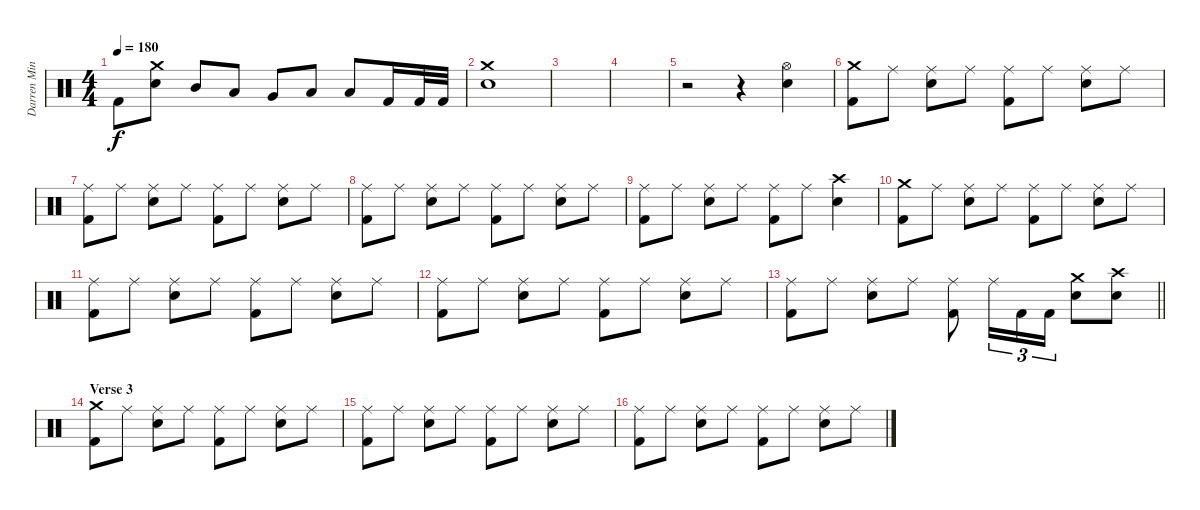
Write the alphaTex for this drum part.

\track ("Darren Minter" "Darren Min") {instrument percussion}
\staff {score}
\articulation defaults
\ts (4 4)
\tempo 180
\clef neutral
\ks c "Kick (hit) 2".8{dy f}
("Crash medium (hit)" "Electric Snare (hit)").8 "Mid Tom (hit)".8 "Low Tom (hit)".8 "Very Low Tom (hit)".8 "Low Floor Tom (hit)".8 "Low Floor Tom (hit)".8 "Kick (hit) 2".16 "Kick (hit) 2".32 "Kick (hit) 2".32 |
("Crash medium (hit)" "Electric Snare (hit)").1 |
|
|
r.2 r.4 ("Hi-Hat (open)" "Electric Snare (hit)").4 |
("Crash medium (hit)" "Kick (hit) 2").8 "Ride (middle)".8 ("Ride (middle)" "Electric Snare (hit)").8 "Ride (middle)".8 ("Ride (middle)" "Kick (hit) 2").8 "Ride (middle)".8 ("Ride (middle)" "Electric Snare (hit)").8 "Ride (middle)".8 |
("Ride (middle)" "Kick (hit) 2").8 "Ride (middle)".8 ("Ride (middle)" "Electric Snare (hit)").8 "Ride (middle)".8 ("Ride (middle)" "Kick (hit) 2").8 "Ride (middle)".8 ("Ride (middle)" "Electric Snare (hit)").8 "Ride (middle)".8 |
("Ride (middle)" "Kick (hit) 2").8 "Ride (middle)".8 ("Ride (middle)" "Electric Snare (hit)").8 "Ride (middle)".8 ("Ride (middle)" "Kick (hit) 2").8 "Ride (middle)".8 ("Ride (middle)" "Electric Snare (hit)").8 "Ride (middle)".8 |
("Ride (middle)" "Kick (hit) 2").8 "Ride (middle)".8 ("Ride (middle)" "Electric Snare (hit)").8 "Ride (middle)".8 ("Ride (middle)" "Kick (hit) 2").8 "Ride (middle)".8 ("Crash high (hit)" "Electric Snare (hit)").4 |
("Crash medium (hit)" "Kick (hit) 2").8 "Ride (middle)".8 ("Ride (middle)" "Electric Snare (hit)").8 "Ride (middle)".8 ("Ride (middle)" "Kick (hit) 2").8 "Ride (middle)".8 ("Ride (middle)" "Electric Snare (hit)").8 "Ride (middle)".8 |
("Ride (middle)" "Kick (hit) 2").8 "Ride (middle)".8 ("Ride (middle)" "Electric Snare (hit)").8 "Ride (middle)".8 ("Ride (middle)" "Kick (hit) 2").8 "Ride (middle)".8 ("Ride (middle)" "Electric Snare (hit)").8 "Ride (middle)".8 |
("Ride (middle)" "Kick (hit) 2").8 "Ride (middle)".8 ("Ride (middle)" "Electric Snare (hit)").8 "Ride (middle)".8 ("Ride (middle)" "Kick (hit) 2").8 "Ride (middle)".8 ("Ride (middle)" "Electric Snare (hit)").8 "Ride (middle)".8 |
\barLineRight lightlight
("Ride (middle)" "Kick (hit) 2").8 "Ride (middle)".8 ("Ride (middle)" "Electric Snare (hit)").8 "Ride (middle)".8 ("Ride (middle)" "Kick (hit) 2").8 "Ride (middle)".16{tu (3 2)} "Kick (hit) 2".16{tu (3 2)} "Kick (hit) 2".16{tu (3 2)} ("Crash medium (hit)" "Electric Snare (hit)").8 ("Crash high (hit)" "Electric Snare (hit)").8 |
\section ("" "Verse 3")
("Crash medium (hit)" "Kick (hit) 2").8 "Ride (middle)".8 ("Ride (middle)" "Electric Snare (hit)").8 "Ride (middle)".8 ("Ride (middle)" "Kick (hit) 2").8 "Ride (middle)".8 ("Ride (middle)" "Electric Snare (hit)").8 "Ride (middle)".8 |
("Ride (middle)" "Kick (hit) 2").8 "Ride (middle)".8 ("Ride (middle)" "Electric Snare (hit)").8 "Ride (middle)".8 ("Ride (middle)" "Kick (hit) 2").8 "Ride (middle)".8 ("Ride (middle)" "Electric Snare (hit)").8 "Ride (middle)".8 |
("Ride (middle)" "Kick (hit) 2").8 "Ride (middle)".8 ("Ride (middle)" "Electric Snare (hit)").8 "Ride (middle)".8 ("Ride (middle)" "Kick (hit) 2").8 "Ride (middle)".8 ("Ride (middle)" "Electric Snare (hit)").8 "Ride (middle)".8
